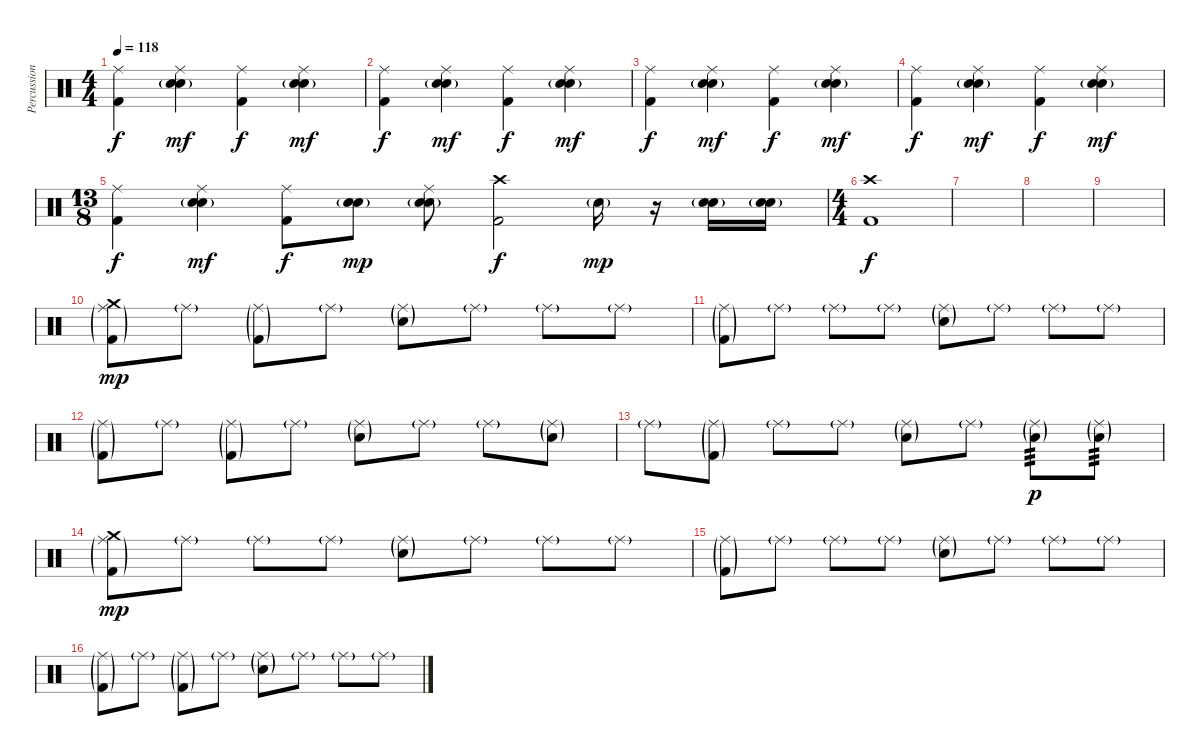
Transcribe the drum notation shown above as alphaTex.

\track ("Percussion" "Percussion") {instrument percussion}
\staff {score}
\articulation defaults
\ts (4 4)
\tempo 118
\clef neutral
\ks c
("Ride (middle)" "Kick (hit) 2").4{dy f} ("Ride (middle)" "Electric Snare (hit)" "Snare (hit) 2"{g}).4{dy mf} ("Ride (middle)" "Kick (hit) 2").4{dy f} ("Ride (middle)" "Electric Snare (hit)" "Snare (hit) 2"{g}).4{dy mf} |
("Ride (middle)" "Kick (hit) 2").4{dy f} ("Ride (middle)" "Electric Snare (hit)" "Snare (hit) 2"{g}).4{dy mf} ("Ride (middle)" "Kick (hit) 2").4{dy f} ("Ride (middle)" "Electric Snare (hit)" "Snare (hit) 2"{g}).4{dy mf} |
("Ride (middle)" "Kick (hit) 2").4{dy f} ("Ride (middle)" "Electric Snare (hit)" "Snare (hit) 2"{g}).4{dy mf} ("Ride (middle)" "Kick (hit) 2").4{dy f} ("Ride (middle)" "Electric Snare (hit)" "Snare (hit) 2"{g}).4{dy mf} |
("Ride (middle)" "Kick (hit) 2").4{dy f} ("Ride (middle)" "Electric Snare (hit)" "Snare (hit) 2"{g}).4{dy mf} ("Ride (middle)" "Kick (hit) 2").4{dy f} ("Ride (middle)" "Electric Snare (hit)" "Snare (hit) 2"{g}).4{dy mf} |
\ts (13 8)
("Ride (middle)" "Kick (hit) 2").4{dy f} ("Ride (middle)" "Electric Snare (hit)" "Snare (hit) 2"{g}).4{dy mf} ("Ride (middle)" "Kick (hit) 2").8{dy f} ("Electric Snare (hit)" "Snare (hit) 2"{g}).8{dy mp} ("Ride (middle)" "Electric Snare (hit)" "Snare (hit) 2"{g}).8 ("Crash high (hit)" "Kick (hit) 2").2{dy f} "Electric Snare (hit)"{g}.16{dy mp} r.16 ("Electric Snare (hit)" "Snare (hit) 2"{g}).16 ("Electric Snare (hit)" "Snare (hit) 2"{g}).16 |
\ts (4 4)
("Crash high (hit)" "Kick (hit) 2").1{dy f} |
|
|
|
("Crash medium (hit)" "Ride (middle)"{g} "Kick (hit) 2"{g}).8{dy mp} "Ride (middle)"{g}.8 ("Ride (middle)"{g} "Kick (hit) 2"{g}).8 "Ride (middle)"{g}.8 ("Ride (middle)"{g} "Electric Snare (hit)"{g}).8 "Ride (middle)"{g}.8 "Ride (middle)"{g}.8 "Ride (middle)"{g}.8 |
("Ride (middle)"{g} "Kick (hit) 2"{g}).8 "Ride (middle)"{g}.8 "Ride (middle)"{g}.8 "Ride (middle)"{g}.8 ("Ride (middle)"{g} "Electric Snare (hit)"{g}).8 "Ride (middle)"{g}.8 "Ride (middle)"{g}.8 "Ride (middle)"{g}.8 |
("Ride (middle)"{g} "Kick (hit) 2"{g}).8 "Ride (middle)"{g}.8 ("Ride (middle)"{g} "Kick (hit) 2"{g}).8 "Ride (middle)"{g}.8 ("Ride (middle)"{g} "Electric Snare (hit)"{g}).8 "Ride (middle)"{g}.8 "Ride (middle)"{g}.8 ("Ride (middle)"{g} "Electric Snare (hit)"{g}).8 |
"Ride (middle)"{g}.8 ("Ride (middle)"{g} "Kick (hit) 2"{g}).8 "Ride (middle)"{g}.8 "Ride (middle)"{g}.8 ("Ride (middle)"{g} "Electric Snare (hit)"{g}).8 "Ride (middle)"{g}.8 ("Ride (middle)"{g} "Electric Snare (hit)"{g}).8{tp 3 dy p} ("Ride (middle)"{g} "Electric Snare (hit)"{g}).8{tp 3} |
("Crash medium (hit)" "Ride (middle)"{g} "Kick (hit) 2"{g}).8{dy mp} "Ride (middle)"{g}.8 "Ride (middle)"{g}.8 "Ride (middle)"{g}.8 ("Ride (middle)"{g} "Electric Snare (hit)"{g}).8 "Ride (middle)"{g}.8 "Ride (middle)"{g}.8 "Ride (middle)"{g}.8 |
("Ride (middle)"{g} "Kick (hit) 2"{g}).8 "Ride (middle)"{g}.8 "Ride (middle)"{g}.8 "Ride (middle)"{g}.8 ("Ride (middle)"{g} "Electric Snare (hit)"{g}).8 "Ride (middle)"{g}.8 "Ride (middle)"{g}.8 "Ride (middle)"{g}.8 |
("Ride (middle)"{g} "Kick (hit) 2"{g}).8 "Ride (middle)"{g}.8 ("Ride (middle)"{g} "Kick (hit) 2"{g}).8 "Ride (middle)"{g}.8 ("Ride (middle)"{g} "Electric Snare (hit)"{g}).8 "Ride (middle)"{g}.8 "Ride (middle)"{g}.8 "Ride (middle)"{g}.8
